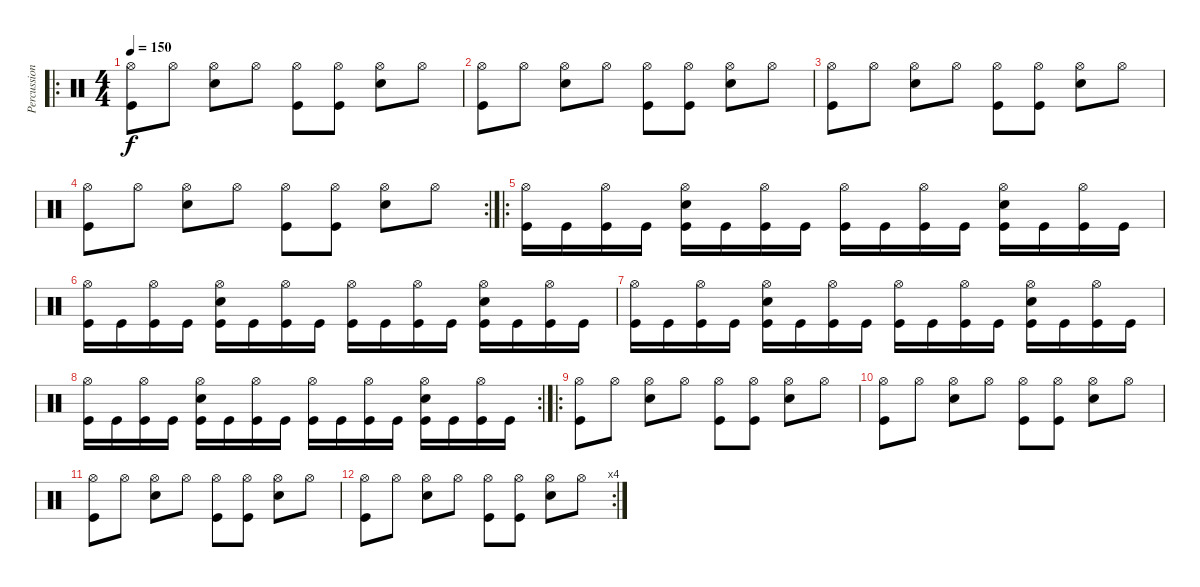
\track ("Percussion" "Percussion") {instrument percussion}
\staff {score}
\articulation defaults
\ro
\ts (4 4)
\tempo 150
\clef neutral
\ks c
("Hi-Hat (open)" "Kick (hit)").8{dy f} "Hi-Hat (open)".8 ("Hi-Hat (open)" "Electric Snare (hit)").8 "Hi-Hat (open)".8 ("Hi-Hat (open)" "Kick (hit)").8 ("Hi-Hat (open)" "Kick (hit)").8 ("Hi-Hat (open)" "Electric Snare (hit)").8 "Hi-Hat (open)".8 |
("Hi-Hat (open)" "Kick (hit)").8 "Hi-Hat (open)".8 ("Hi-Hat (open)" "Electric Snare (hit)").8 "Hi-Hat (open)".8 ("Hi-Hat (open)" "Kick (hit)").8 ("Hi-Hat (open)" "Kick (hit)").8 ("Hi-Hat (open)" "Electric Snare (hit)").8 "Hi-Hat (open)".8 |
("Hi-Hat (open)" "Kick (hit)").8 "Hi-Hat (open)".8 ("Hi-Hat (open)" "Electric Snare (hit)").8 "Hi-Hat (open)".8 ("Hi-Hat (open)" "Kick (hit)").8 ("Hi-Hat (open)" "Kick (hit)").8 ("Hi-Hat (open)" "Electric Snare (hit)").8 "Hi-Hat (open)".8 |
\rc 2
("Hi-Hat (open)" "Kick (hit)").8 "Hi-Hat (open)".8 ("Hi-Hat (open)" "Electric Snare (hit)").8 "Hi-Hat (open)".8 ("Hi-Hat (open)" "Kick (hit)").8 ("Hi-Hat (open)" "Kick (hit)").8 ("Hi-Hat (open)" "Electric Snare (hit)").8 "Hi-Hat (open)".8 |
\ro
("Hi-Hat (open)" "Kick (hit)").16 "Kick (hit)".16 ("Hi-Hat (open)" "Kick (hit)").16 "Kick (hit)".16 ("Electric Snare (hit)" "Hi-Hat (open)" "Kick (hit)").16 "Kick (hit)".16 ("Hi-Hat (open)" "Kick (hit)").16 "Kick (hit)".16 ("Hi-Hat (open)" "Kick (hit)").16 "Kick (hit)".16 ("Hi-Hat (open)" "Kick (hit)").16 "Kick (hit)".16 ("Electric Snare (hit)" "Hi-Hat (open)" "Kick (hit)").16 "Kick (hit)".16 ("Hi-Hat (open)" "Kick (hit)").16 "Kick (hit)".16 |
("Hi-Hat (open)" "Kick (hit)").16 "Kick (hit)".16 ("Hi-Hat (open)" "Kick (hit)").16 "Kick (hit)".16 ("Electric Snare (hit)" "Hi-Hat (open)" "Kick (hit)").16 "Kick (hit)".16 ("Hi-Hat (open)" "Kick (hit)").16 "Kick (hit)".16 ("Hi-Hat (open)" "Kick (hit)").16 "Kick (hit)".16 ("Hi-Hat (open)" "Kick (hit)").16 "Kick (hit)".16 ("Electric Snare (hit)" "Hi-Hat (open)" "Kick (hit)").16 "Kick (hit)".16 ("Hi-Hat (open)" "Kick (hit)").16 "Kick (hit)".16 |
("Hi-Hat (open)" "Kick (hit)").16 "Kick (hit)".16 ("Hi-Hat (open)" "Kick (hit)").16 "Kick (hit)".16 ("Electric Snare (hit)" "Hi-Hat (open)" "Kick (hit)").16 "Kick (hit)".16 ("Hi-Hat (open)" "Kick (hit)").16 "Kick (hit)".16 ("Hi-Hat (open)" "Kick (hit)").16 "Kick (hit)".16 ("Hi-Hat (open)" "Kick (hit)").16 "Kick (hit)".16 ("Electric Snare (hit)" "Hi-Hat (open)" "Kick (hit)").16 "Kick (hit)".16 ("Hi-Hat (open)" "Kick (hit)").16 "Kick (hit)".16 |
\rc 2
("Hi-Hat (open)" "Kick (hit)").16 "Kick (hit)".16 ("Hi-Hat (open)" "Kick (hit)").16 "Kick (hit)".16 ("Electric Snare (hit)" "Hi-Hat (open)" "Kick (hit)").16 "Kick (hit)".16 ("Hi-Hat (open)" "Kick (hit)").16 "Kick (hit)".16 ("Hi-Hat (open)" "Kick (hit)").16 "Kick (hit)".16 ("Hi-Hat (open)" "Kick (hit)").16 "Kick (hit)".16 ("Electric Snare (hit)" "Hi-Hat (open)" "Kick (hit)").16 "Kick (hit)".16 ("Hi-Hat (open)" "Kick (hit)").16 "Kick (hit)".16 |
\ro
("Hi-Hat (open)" "Kick (hit)").8 "Hi-Hat (open)".8 ("Hi-Hat (open)" "Electric Snare (hit)").8 "Hi-Hat (open)".8 ("Hi-Hat (open)" "Kick (hit)").8 ("Hi-Hat (open)" "Kick (hit)").8 ("Hi-Hat (open)" "Electric Snare (hit)").8 "Hi-Hat (open)".8 |
("Hi-Hat (open)" "Kick (hit)").8 "Hi-Hat (open)".8 ("Hi-Hat (open)" "Electric Snare (hit)").8 "Hi-Hat (open)".8 ("Hi-Hat (open)" "Kick (hit)").8 ("Hi-Hat (open)" "Kick (hit)").8 ("Hi-Hat (open)" "Electric Snare (hit)").8 "Hi-Hat (open)".8 |
("Hi-Hat (open)" "Kick (hit)").8 "Hi-Hat (open)".8 ("Hi-Hat (open)" "Electric Snare (hit)").8 "Hi-Hat (open)".8 ("Hi-Hat (open)" "Kick (hit)").8 ("Hi-Hat (open)" "Kick (hit)").8 ("Hi-Hat (open)" "Electric Snare (hit)").8 "Hi-Hat (open)".8 |
\rc 4
("Hi-Hat (open)" "Kick (hit)").8 "Hi-Hat (open)".8 ("Hi-Hat (open)" "Electric Snare (hit)").8 "Hi-Hat (open)".8 ("Hi-Hat (open)" "Kick (hit)").8 ("Hi-Hat (open)" "Kick (hit)").8 ("Hi-Hat (open)" "Electric Snare (hit)").8 "Hi-Hat (open)".8
